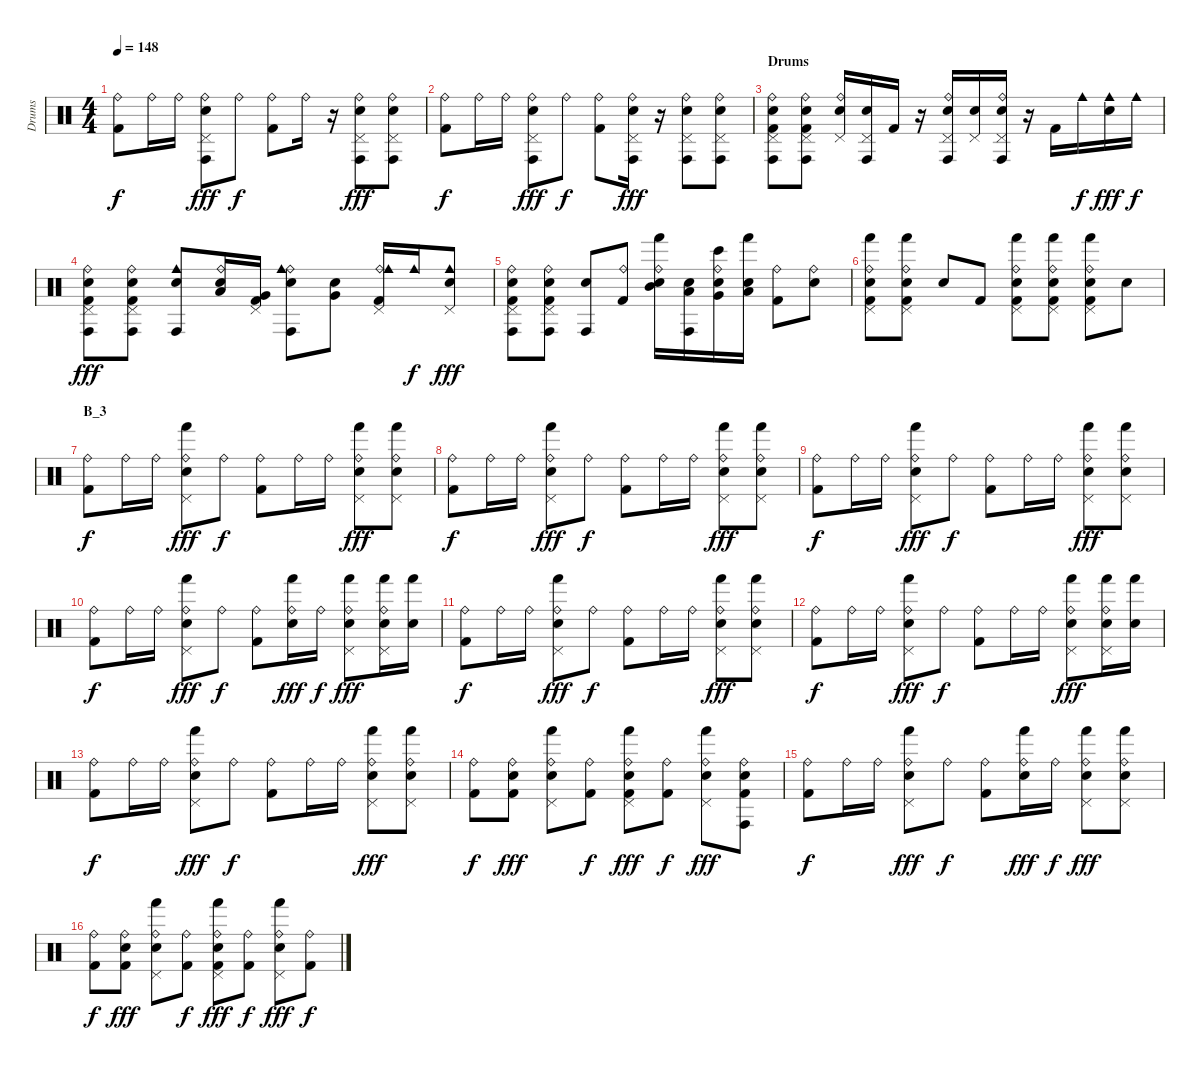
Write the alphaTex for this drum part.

\track ("Drums" "Drums") {instrument percussion}
\staff {score}
\articulation defaults
\ts (4 4)
\tempo 148
\clef neutral
\ks c
("Ride (bell)" "Kick (hit) 2").8{dy f} "Ride (bell)".16 "Ride (bell)".16 ("Ride (bell)" "Pedal Hi-Hat (hit)" "Conga high (hit)" "Electric Snare (hit)").8{dy fff} "Ride (bell)".8{dy f} ("Ride (bell)" "Kick (hit) 2").8 "Ride (bell)".16 r.16 ("Ride (bell)" "Pedal Hi-Hat (hit)" "Conga high (hit)" "Electric Snare (hit)").8{dy fff} ("Ride (bell)" "Pedal Hi-Hat (hit)" "Conga high (hit)" "Electric Snare (hit)").8 |
("Ride (bell)" "Kick (hit) 2").8{dy f} "Ride (bell)".16 "Ride (bell)".16 ("Ride (bell)" "Pedal Hi-Hat (hit)" "Conga high (hit)" "Electric Snare (hit)").8{dy fff} "Ride (bell)".8{dy f} ("Ride (bell)" "Kick (hit) 2").8 ("Ride (bell)" "Pedal Hi-Hat (hit)" "Conga high (hit)" "Electric Snare (hit)").16{dy fff} r.16 ("Ride (bell)" "Pedal Hi-Hat (hit)" "Conga high (hit)" "Electric Snare (hit)").8 ("Ride (bell)" "Pedal Hi-Hat (hit)" "Conga high (hit)" "Electric Snare (hit)").8 |
\section ("" "Drums")
("Ride (bell)" "Pedal Hi-Hat (hit)" "Conga high (hit)" "Electric Snare (hit)" "Kick (hit) 2").8 ("Ride (bell)" "Pedal Hi-Hat (hit)" "Conga high (hit)" "Electric Snare (hit)" "Kick (hit) 2").8 ("Ride (bell)" "Pedal Hi-Hat (hit)" "Electric Snare (hit)").16 ("Pedal Hi-Hat (hit)" "Conga high (hit)" "Electric Snare (hit)").16 "Kick (hit) 2".16 r.16 ("Ride (bell)" "Pedal Hi-Hat (hit)" "Conga high (hit)" "Electric Snare (hit)").16 ("Pedal Hi-Hat (hit)" "Electric Snare (hit)").16 ("Ride (bell)" "Pedal Hi-Hat (hit)" "Conga high (hit)" "Electric Snare (hit)").16 r.16 "Kick (hit) 2".16 "Cowbell medium (hit)".16{dy f} ("Cowbell medium (hit)" "Electric Snare (hit)").16{dy fff} "Cowbell medium (hit)".16{dy f} |
("Ride (bell)" "Pedal Hi-Hat (hit)" "Conga high (hit)" "Electric Snare (hit)" "Kick (hit) 2").8{dy fff} ("Ride (bell)" "Pedal Hi-Hat (hit)" "Conga high (hit)" "Electric Snare (hit)" "Kick (hit) 2").8 ("Cowbell medium (hit)" "Conga high (hit)" "Electric Snare (hit)").8 ("Ride (bell)" "Low Tom (hit)" "Electric Snare (hit)").16 ("Pedal Hi-Hat (hit)" "Very Low Tom (hit)" "Kick (hit) 2").16 ("Ride (bell)" "Cowbell medium (hit)" "Conga high (hit)" "Electric Snare (hit)").8 ("Very Low Tom (hit)" "Electric Snare (hit)").8 ("Ride (bell)" "Pedal Hi-Hat (hit)" "Cowbell medium (hit)" "Kick (hit) 2").16 "Cowbell medium (hit)".16{dy f} ("Pedal Hi-Hat (hit)" "Cowbell medium (hit)" "Electric Snare (hit)").8{dy fff} |
("Ride (bell)" "Pedal Hi-Hat (hit)" "Conga high (hit)" "Electric Snare (hit)" "Kick (hit) 2").8 ("Ride (bell)" "Pedal Hi-Hat (hit)" "Conga high (hit)" "Electric Snare (hit)" "Kick (hit) 2").8 ("Conga high (hit)" "Electric Snare (hit)").8 ("Ride (bell)" "Kick (hit) 2").8 ("Ride (bell)" "Mid Tom (hit)" "Hand (hit)" "Electric Snare (hit)").16 ("Low Tom (hit)" "Conga high (hit)" "Electric Snare (hit)").16 ("Ride (bell)" "Very Low Tom (hit)" "Bongo High (hit)" "Electric Snare (hit)").16 ("Low Floor Tom (hit)" "Hand (hit)" "Electric Snare (hit)").16 ("Ride (bell)" "Kick (hit) 2").8 ("Ride (bell)" "Electric Snare (hit)").8 |
("Ride (bell)" "Pedal Hi-Hat (hit)" "Hand (hit)" "Electric Snare (hit)" "Kick (hit) 2").8 ("Ride (bell)" "Pedal Hi-Hat (hit)" "Hand (hit)" "Electric Snare (hit)" "Kick (hit) 2").8 "Electric Snare (hit)".8 "Kick (hit) 2".8 ("Ride (bell)" "Pedal Hi-Hat (hit)" "Hand (hit)" "Electric Snare (hit)" "Kick (hit) 2").8 ("Ride (bell)" "Pedal Hi-Hat (hit)" "Hand (hit)" "Electric Snare (hit)" "Kick (hit) 2").8 ("Ride (bell)" "Pedal Hi-Hat (hit)" "Hand (hit)" "Electric Snare (hit)" "Kick (hit) 2").8 "Electric Snare (hit)".8 |
\section ("" "B_3")
("Ride (bell)" "Kick (hit) 2").8{dy f} "Ride (bell)".16 "Ride (bell)".16 ("Ride (bell)" "Pedal Hi-Hat (hit)" "Hand (hit)" "Electric Snare (hit)").8{dy fff} "Ride (bell)".8{dy f} ("Ride (bell)" "Kick (hit) 2").8 "Ride (bell)".16 "Ride (bell)".16 ("Ride (bell)" "Pedal Hi-Hat (hit)" "Hand (hit)" "Electric Snare (hit)").8{dy fff} ("Ride (bell)" "Pedal Hi-Hat (hit)" "Hand (hit)" "Electric Snare (hit)").8 |
("Ride (bell)" "Kick (hit) 2").8{dy f} "Ride (bell)".16 "Ride (bell)".16 ("Ride (bell)" "Pedal Hi-Hat (hit)" "Hand (hit)" "Electric Snare (hit)").8{dy fff} "Ride (bell)".8{dy f} ("Ride (bell)" "Kick (hit) 2").8 "Ride (bell)".16 "Ride (bell)".16 ("Ride (bell)" "Pedal Hi-Hat (hit)" "Hand (hit)" "Electric Snare (hit)").8{dy fff} ("Ride (bell)" "Pedal Hi-Hat (hit)" "Hand (hit)" "Electric Snare (hit)").8 |
("Ride (bell)" "Kick (hit) 2").8{dy f} "Ride (bell)".16 "Ride (bell)".16 ("Ride (bell)" "Pedal Hi-Hat (hit)" "Hand (hit)" "Electric Snare (hit)").8{dy fff} "Ride (bell)".8{dy f} ("Ride (bell)" "Kick (hit) 2").8 "Ride (bell)".16 "Ride (bell)".16 ("Ride (bell)" "Pedal Hi-Hat (hit)" "Hand (hit)" "Electric Snare (hit)").8{dy fff} ("Ride (bell)" "Pedal Hi-Hat (hit)" "Hand (hit)" "Electric Snare (hit)").8 |
("Ride (bell)" "Kick (hit) 2").8{dy f} "Ride (bell)".16 "Ride (bell)".16 ("Ride (bell)" "Pedal Hi-Hat (hit)" "Hand (hit)" "Electric Snare (hit)").8{dy fff} "Ride (bell)".8{dy f} ("Ride (bell)" "Kick (hit) 2").8 ("Ride (bell)" "Hand (hit)" "Electric Snare (hit)").16{dy fff} "Ride (bell)".16{dy f} ("Ride (bell)" "Pedal Hi-Hat (hit)" "Hand (hit)" "Electric Snare (hit)").8{dy fff} ("Ride (bell)" "Pedal Hi-Hat (hit)" "Hand (hit)" "Electric Snare (hit)").16 ("Hand (hit)" "Electric Snare (hit)").16 |
("Ride (bell)" "Kick (hit) 2").8{dy f} "Ride (bell)".16 "Ride (bell)".16 ("Ride (bell)" "Pedal Hi-Hat (hit)" "Hand (hit)" "Electric Snare (hit)").8{dy fff} "Ride (bell)".8{dy f} ("Ride (bell)" "Kick (hit) 2").8 "Ride (bell)".16 "Ride (bell)".16 ("Ride (bell)" "Pedal Hi-Hat (hit)" "Hand (hit)" "Electric Snare (hit)").8{dy fff} ("Ride (bell)" "Pedal Hi-Hat (hit)" "Hand (hit)" "Electric Snare (hit)").8 |
("Ride (bell)" "Kick (hit) 2").8{dy f} "Ride (bell)".16 "Ride (bell)".16 ("Ride (bell)" "Pedal Hi-Hat (hit)" "Hand (hit)" "Electric Snare (hit)").8{dy fff} "Ride (bell)".8{dy f} ("Ride (bell)" "Kick (hit) 2").8 "Ride (bell)".16 "Ride (bell)".16 ("Ride (bell)" "Pedal Hi-Hat (hit)" "Hand (hit)" "Electric Snare (hit)").8{dy fff} ("Ride (bell)" "Pedal Hi-Hat (hit)" "Hand (hit)" "Electric Snare (hit)").16 ("Hand (hit)" "Electric Snare (hit)").16 |
("Ride (bell)" "Kick (hit) 2").8{dy f} "Ride (bell)".16 "Ride (bell)".16 ("Ride (bell)" "Pedal Hi-Hat (hit)" "Hand (hit)" "Electric Snare (hit)").8{dy fff} "Ride (bell)".8{dy f} ("Ride (bell)" "Kick (hit) 2").8 "Ride (bell)".16 "Ride (bell)".16 ("Ride (bell)" "Pedal Hi-Hat (hit)" "Hand (hit)" "Electric Snare (hit)").8{dy fff} ("Ride (bell)" "Pedal Hi-Hat (hit)" "Hand (hit)" "Electric Snare (hit)").8 |
("Ride (bell)" "Kick (hit) 2").8{dy f} ("Ride (bell)" "Electric Snare (hit)" "Kick (hit) 2").8{dy fff} ("Ride (bell)" "Pedal Hi-Hat (hit)" "Hand (hit)" "Electric Snare (hit)").8 ("Ride (bell)" "Kick (hit) 2").8{dy f} ("Ride (bell)" "Pedal Hi-Hat (hit)" "Hand (hit)" "Electric Snare (hit)" "Kick (hit) 2").8{dy fff} ("Ride (bell)" "Kick (hit) 2").8{dy f} ("Ride (bell)" "Pedal Hi-Hat (hit)" "Hand (hit)" "Electric Snare (hit)").8{dy fff} ("Ride (bell)" "Conga high (hit)" "Electric Snare (hit)" "Kick (hit) 2").8 |
("Ride (bell)" "Kick (hit) 2").8{dy f} "Ride (bell)".16 "Ride (bell)".16 ("Ride (bell)" "Pedal Hi-Hat (hit)" "Hand (hit)" "Electric Snare (hit)").8{dy fff} "Ride (bell)".8{dy f} ("Ride (bell)" "Kick (hit) 2").8 ("Ride (bell)" "Hand (hit)" "Electric Snare (hit)").16{dy fff} "Ride (bell)".16{dy f} ("Ride (bell)" "Pedal Hi-Hat (hit)" "Hand (hit)" "Electric Snare (hit)").8{dy fff} ("Ride (bell)" "Pedal Hi-Hat (hit)" "Hand (hit)" "Electric Snare (hit)").8 |
("Ride (bell)" "Kick (hit) 2").8{dy f} ("Ride (bell)" "Electric Snare (hit)" "Kick (hit) 2").8{dy fff} ("Ride (bell)" "Pedal Hi-Hat (hit)" "Hand (hit)" "Electric Snare (hit)").8 ("Ride (bell)" "Kick (hit) 2").8{dy f} ("Ride (bell)" "Pedal Hi-Hat (hit)" "Hand (hit)" "Electric Snare (hit)" "Kick (hit) 2").8{dy fff} ("Ride (bell)" "Kick (hit) 2").8{dy f} ("Ride (bell)" "Pedal Hi-Hat (hit)" "Hand (hit)" "Electric Snare (hit)").8{dy fff} ("Ride (bell)" "Kick (hit) 2").8{dy f}
